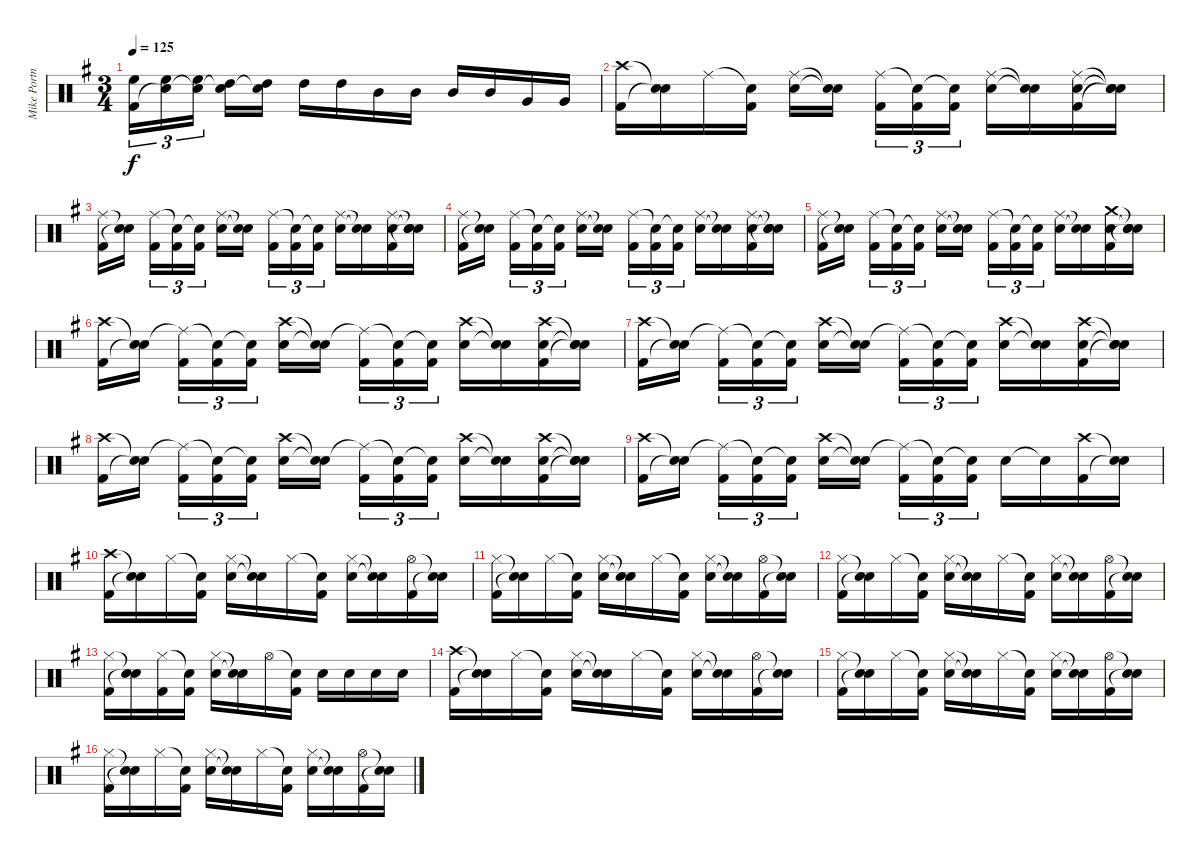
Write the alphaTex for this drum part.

\track ("Mike Portnoy - Drums" "Mike Portn") {instrument percussion}
\staff {score}
\articulation defaults
\ts (3 4)
\tempo 125
\clef neutral
\ks g
("High Floor Tom (hit)" "Kick (hit) 2").16{tu (3 2) dy f} ("High Floor Tom (hit)" "Snare (hit)"{t}).16{tu (3 2)} ("High Floor Tom (hit)" "Snare (hit)"{t}).16{tu (3 2) beam splitsecondary} ("High Tom (hit)" "Snare (hit)"{t}).16 ("High Tom (hit)" "Snare (hit)"{t}).16 "High Tom (hit)".16 "High Tom (hit)".16 "Mid Tom (hit)".16 "Mid Tom (hit)".16 "Mid Tom (hit)".16 "Mid Tom (hit)".16 "Very Low Tom (hit)".16 "Very Low Tom (hit)".16 |
("Crash high (hit)" "Kick (hit) 2").16 ("Snare (hit)"{t} "Snare (hit)"{t}).16 "Ride (middle)".16 ("Snare (hit)"{t} "Kick (hit) 2").16 ("Ride (middle)" "Snare (hit) 2").16 ("Snare (hit)"{t} "Snare (hit)"{t}).16{beam splitsecondary} ("Ride (middle)" "Kick (hit) 2").16{tu (3 2)} ("Snare (hit)"{t} "Kick (hit) 2").16{tu (3 2)} ("Snare (hit)"{t} "Kick (hit) 2").16{tu (3 2)} ("Ride (middle)" "Snare (hit) 2").16 ("Snare (hit)"{t} "Snare (hit)"{t}).16 ("Ride (middle)" "Snare (hit) 2" "Kick (hit) 2").16 ("Snare (hit)"{t} "Snare (hit)"{t} "Snare (hit)"{t}).16 |
("Ride (middle)" "Kick (hit) 2").16 ("Snare (hit)"{t} "Snare (hit)"{t}).16{beam splitsecondary} ("Ride (middle)" "Kick (hit) 2").16{tu (3 2)} ("Snare (hit)"{t} "Kick (hit) 2").16{tu (3 2)} ("Snare (hit)"{t} "Kick (hit) 2").16{tu (3 2)} ("Ride (middle)" "Snare (hit) 2").16 ("Snare (hit)"{t} "Snare (hit)"{t}).16{beam splitsecondary} ("Ride (middle)" "Kick (hit) 2").16{tu (3 2)} ("Snare (hit)"{t} "Kick (hit) 2").16{tu (3 2)} ("Snare (hit)"{t} "Kick (hit) 2").16{tu (3 2)} ("Ride (middle)" "Snare (hit) 2").16 ("Snare (hit)"{t} "Snare (hit)"{t}).16 ("Ride (middle)" "Snare (hit) 2" "Kick (hit) 2").16 ("Snare (hit)"{t} "Snare (hit)"{t} "Snare (hit)"{t}).16 |
("Ride (middle)" "Kick (hit) 2").16 ("Snare (hit)"{t} "Snare (hit)"{t}).16{beam splitsecondary} ("Ride (middle)" "Kick (hit) 2").16{tu (3 2)} ("Snare (hit)"{t} "Kick (hit) 2").16{tu (3 2)} ("Snare (hit)"{t} "Kick (hit) 2").16{tu (3 2)} ("Ride (middle)" "Snare (hit) 2").16 ("Snare (hit)"{t} "Snare (hit)"{t}).16{beam splitsecondary} ("Ride (middle)" "Kick (hit) 2").16{tu (3 2)} ("Snare (hit)"{t} "Kick (hit) 2").16{tu (3 2)} ("Snare (hit)"{t} "Kick (hit) 2").16{tu (3 2)} ("Ride (middle)" "Snare (hit) 2").16 ("Snare (hit)"{t} "Snare (hit)"{t}).16 ("Ride (middle)" "Snare (hit) 2" "Kick (hit) 2").16 ("Snare (hit)"{t} "Snare (hit)"{t} "Snare (hit)"{t}).16 |
("Ride (middle)" "Kick (hit) 2").16 ("Snare (hit)"{t} "Snare (hit)"{t}).16{beam splitsecondary} ("Ride (middle)" "Kick (hit) 2").16{tu (3 2)} ("Snare (hit)"{t} "Kick (hit) 2").16{tu (3 2)} ("Snare (hit)"{t} "Kick (hit) 2").16{tu (3 2)} ("Ride (middle)" "Snare (hit) 2").16 ("Snare (hit)"{t} "Snare (hit)"{t}).16{beam splitsecondary} ("Ride (middle)" "Kick (hit) 2").16{tu (3 2)} ("Snare (hit)"{t} "Kick (hit) 2").16{tu (3 2)} ("Snare (hit)"{t} "Kick (hit) 2").16{tu (3 2)} ("Ride (middle)" "Snare (hit) 2").16 ("Snare (hit)"{t} "Snare (hit)"{t}).16 ("Crash medium (hit)" "Snare (hit) 2" "Kick (hit) 2").16 ("Snare (hit)"{t} "Snare (hit)"{t} "Snare (hit)"{t}).16 |
("Crash high (hit)" "Kick (hit) 2").16 ("Snare (hit)"{t} "Snare (hit)"{t}).16{beam splitsecondary} ("Ride (middle)"{t} "Kick (hit) 2").16{tu (3 2)} ("Snare (hit)"{t} "Kick (hit) 2").16{tu (3 2)} ("Snare (hit)"{t} "Kick (hit) 2").16{tu (3 2)} ("Crash high (hit)" "Snare (hit) 2").16 ("Snare (hit)"{t} "Snare (hit)"{t}).16{beam splitsecondary} ("Ride (middle)"{t} "Kick (hit) 2").16{tu (3 2)} ("Snare (hit)"{t} "Kick (hit) 2").16{tu (3 2)} ("Snare (hit)"{t} "Kick (hit) 2").16{tu (3 2)} ("Crash high (hit)" "Snare (hit) 2").16 ("Snare (hit)"{t} "Snare (hit)"{t}).16 ("Crash high (hit)" "Snare (hit) 2" "Kick (hit) 2").16 ("Snare (hit)"{t} "Snare (hit)"{t} "Snare (hit)"{t}).16 |
("Crash high (hit)" "Kick (hit) 2").16 ("Snare (hit)"{t} "Snare (hit)"{t}).16{beam splitsecondary} ("Ride (middle)"{t} "Kick (hit) 2").16{tu (3 2)} ("Snare (hit)"{t} "Kick (hit) 2").16{tu (3 2)} ("Snare (hit)"{t} "Kick (hit) 2").16{tu (3 2)} ("Crash high (hit)" "Snare (hit) 2").16 ("Snare (hit)"{t} "Snare (hit)"{t}).16{beam splitsecondary} ("Ride (middle)"{t} "Kick (hit) 2").16{tu (3 2)} ("Snare (hit)"{t} "Kick (hit) 2").16{tu (3 2)} ("Snare (hit)"{t} "Kick (hit) 2").16{tu (3 2)} ("Crash high (hit)" "Snare (hit) 2").16 ("Snare (hit)"{t} "Snare (hit)"{t}).16 ("Crash high (hit)" "Snare (hit) 2" "Kick (hit) 2").16 ("Snare (hit)"{t} "Snare (hit)"{t} "Snare (hit)"{t}).16 |
("Crash high (hit)" "Kick (hit) 2").16 ("Snare (hit)"{t} "Snare (hit)"{t}).16{beam splitsecondary} ("Ride (middle)"{t} "Kick (hit) 2").16{tu (3 2)} ("Snare (hit)"{t} "Kick (hit) 2").16{tu (3 2)} ("Snare (hit)"{t} "Kick (hit) 2").16{tu (3 2)} ("Crash high (hit)" "Snare (hit) 2").16 ("Snare (hit)"{t} "Snare (hit)"{t}).16{beam splitsecondary} ("Ride (middle)"{t} "Kick (hit) 2").16{tu (3 2)} ("Snare (hit)"{t} "Kick (hit) 2").16{tu (3 2)} ("Snare (hit)"{t} "Kick (hit) 2").16{tu (3 2)} ("Crash high (hit)" "Snare (hit) 2").16 ("Snare (hit)"{t} "Snare (hit)"{t}).16 ("Crash high (hit)" "Snare (hit) 2" "Kick (hit) 2").16 ("Snare (hit)"{t} "Snare (hit)"{t} "Snare (hit)"{t}).16 |
("Crash high (hit)" "Kick (hit) 2").16 ("Snare (hit)"{t} "Snare (hit)"{t}).16{beam splitsecondary} ("Ride (middle)"{t} "Kick (hit) 2").16{tu (3 2)} ("Snare (hit)"{t} "Kick (hit) 2").16{tu (3 2)} ("Snare (hit)"{t} "Kick (hit) 2").16{tu (3 2)} ("Crash high (hit)" "Snare (hit) 2").16 ("Snare (hit)"{t} "Snare (hit)"{t}).16{beam splitsecondary} ("Ride (middle)"{t} "Kick (hit) 2").16{tu (3 2)} ("Snare (hit)"{t} "Kick (hit) 2").16{tu (3 2)} ("Snare (hit)"{t} "Kick (hit) 2").16{tu (3 2)} "Snare (hit) 2".16 "Snare (hit)"{t}.16 ("Crash high (hit)" "Kick (hit) 2").16 ("Snare (hit)"{t} "Snare (hit)"{t}).16 |
("Crash high (hit)" "Kick (hit) 2").16 ("Snare (hit)"{t} "Snare (hit)"{t}).16 "Hi-Hat (closed)".16 ("Snare (hit)"{t} "Kick (hit) 2").16 ("Hi-Hat (closed)" "Snare (hit) 2").16 ("Snare (hit)"{t} "Snare (hit)"{t}).16 "Hi-Hat (closed)".16 ("Snare (hit)"{t} "Kick (hit) 2").16 ("Hi-Hat (closed)" "Snare (hit) 2").16 ("Snare (hit)"{t} "Snare (hit)"{t}).16 ("Hi-Hat (open)" "Kick (hit) 2").16 ("Snare (hit)"{t} "Snare (hit)"{t}).16 |
("Hi-Hat (closed)" "Kick (hit) 2").16 ("Snare (hit)"{t} "Snare (hit)"{t}).16 "Hi-Hat (closed)".16 ("Snare (hit)"{t} "Kick (hit) 2").16 ("Hi-Hat (closed)" "Snare (hit) 2").16 ("Snare (hit)"{t} "Snare (hit)"{t}).16 "Hi-Hat (closed)".16 ("Snare (hit)"{t} "Kick (hit) 2").16 ("Hi-Hat (closed)" "Snare (hit) 2").16 ("Snare (hit)"{t} "Snare (hit)"{t}).16 ("Hi-Hat (open)" "Kick (hit) 2").16 ("Snare (hit)"{t} "Snare (hit)"{t}).16 |
("Hi-Hat (closed)" "Kick (hit) 2").16 ("Snare (hit)"{t} "Snare (hit)"{t}).16 "Hi-Hat (closed)".16 ("Snare (hit)"{t} "Kick (hit) 2").16 ("Hi-Hat (closed)" "Snare (hit) 2").16 ("Snare (hit)"{t} "Snare (hit)"{t}).16 "Hi-Hat (closed)".16 ("Snare (hit)"{t} "Kick (hit) 2").16 ("Hi-Hat (closed)" "Snare (hit) 2").16 ("Snare (hit)"{t} "Snare (hit)"{t}).16 ("Hi-Hat (open)" "Kick (hit) 2").16 ("Snare (hit)"{t} "Snare (hit)"{t}).16 |
("Hi-Hat (closed)" "Kick (hit) 2").16 ("Snare (hit)"{t} "Snare (hit)"{t}).16 ("Hi-Hat (closed)" "Kick (hit) 2").16 ("Snare (hit)"{t} "Kick (hit) 2").16 ("Hi-Hat (closed)" "Snare (hit) 2").16 ("Snare (hit)"{t} "Snare (hit)"{t}).16 "Hi-Hat (open)".16 ("Snare (hit)"{t} "Kick (hit) 2").16 "Snare (hit) 2".16 "Snare (hit) 2".16 "Snare (hit) 2".16 "Snare (hit) 2".16 |
("Crash high (hit)" "Kick (hit) 2").16 ("Snare (hit)"{t} "Snare (hit)"{t}).16 "Hi-Hat (closed)".16 ("Snare (hit)"{t} "Kick (hit) 2").16 ("Hi-Hat (closed)" "Snare (hit) 2").16 ("Snare (hit)"{t} "Snare (hit)"{t}).16 "Hi-Hat (closed)".16 ("Snare (hit)"{t} "Kick (hit) 2").16 ("Hi-Hat (closed)" "Snare (hit) 2").16 ("Snare (hit)"{t} "Snare (hit)"{t}).16 ("Hi-Hat (open)" "Kick (hit) 2").16 ("Snare (hit)"{t} "Snare (hit)"{t}).16 |
("Hi-Hat (closed)" "Kick (hit) 2").16 ("Snare (hit)"{t} "Snare (hit)"{t}).16 "Hi-Hat (closed)".16 ("Snare (hit)"{t} "Kick (hit) 2").16 ("Hi-Hat (closed)" "Snare (hit) 2").16 ("Snare (hit)"{t} "Snare (hit)"{t}).16 "Hi-Hat (closed)".16 ("Snare (hit)"{t} "Kick (hit) 2").16 ("Hi-Hat (closed)" "Snare (hit) 2").16 ("Snare (hit)"{t} "Snare (hit)"{t}).16 ("Hi-Hat (open)" "Kick (hit) 2").16 ("Snare (hit)"{t} "Snare (hit)"{t}).16 |
("Hi-Hat (closed)" "Kick (hit) 2").16 ("Snare (hit)"{t} "Snare (hit)"{t}).16 "Hi-Hat (closed)".16 ("Snare (hit)"{t} "Kick (hit) 2").16 ("Hi-Hat (closed)" "Snare (hit) 2").16 ("Snare (hit)"{t} "Snare (hit)"{t}).16 "Hi-Hat (closed)".16 ("Snare (hit)"{t} "Kick (hit) 2").16 ("Hi-Hat (closed)" "Snare (hit) 2").16 ("Snare (hit)"{t} "Snare (hit)"{t}).16 ("Hi-Hat (open)" "Kick (hit) 2").16 ("Snare (hit)"{t} "Snare (hit)"{t}).16
